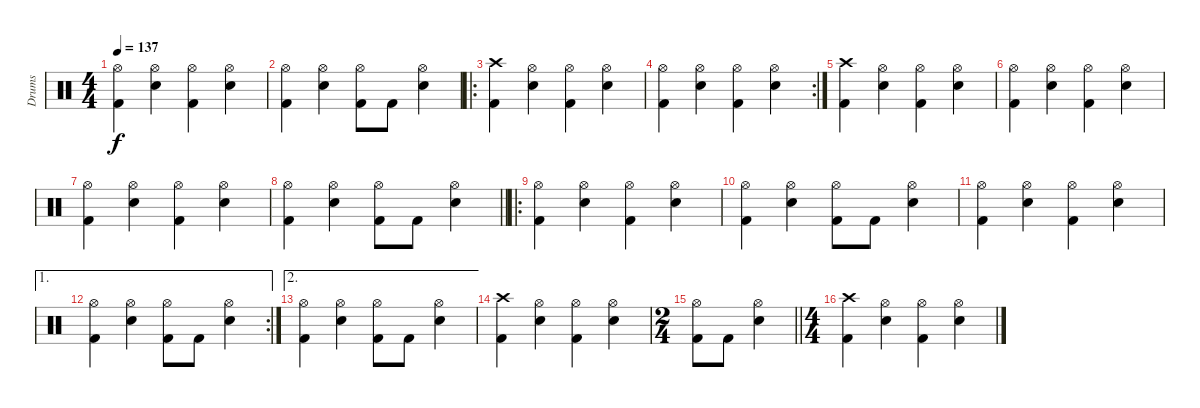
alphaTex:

\track ("Drums" "Drums") {instrument percussion}
\staff {score}
\articulation defaults
\ts (4 4)
\tempo 137
\clef neutral
\ks c
("Hi-Hat (open)" "Kick (hit) 2").4{dy f} ("Hi-Hat (open)" "Snare (hit) 2").4 ("Hi-Hat (open)" "Kick (hit) 2").4 ("Hi-Hat (open)" "Snare (hit) 2").4 |
("Hi-Hat (open)" "Kick (hit) 2").4 ("Hi-Hat (open)" "Snare (hit) 2").4 ("Hi-Hat (open)" "Kick (hit) 2").8 "Kick (hit) 2".8 ("Hi-Hat (open)" "Snare (hit) 2").4 |
\ro
("Crash high (hit)" "Kick (hit) 2").4 ("Hi-Hat (open)" "Snare (hit) 2").4 ("Hi-Hat (open)" "Kick (hit) 2").4 ("Hi-Hat (open)" "Snare (hit) 2").4 |
\rc 2
("Hi-Hat (open)" "Kick (hit) 2").4 ("Hi-Hat (open)" "Snare (hit) 2").4 ("Hi-Hat (open)" "Kick (hit) 2").4 ("Hi-Hat (open)" "Snare (hit) 2").4 |
("Crash high (hit)" "Kick (hit) 2").4 ("Hi-Hat (open)" "Snare (hit) 2").4 ("Hi-Hat (open)" "Kick (hit) 2").4 ("Hi-Hat (open)" "Snare (hit) 2").4 |
("Hi-Hat (open)" "Kick (hit) 2").4 ("Hi-Hat (open)" "Snare (hit) 2").4 ("Hi-Hat (open)" "Kick (hit) 2").4 ("Hi-Hat (open)" "Snare (hit) 2").4 |
("Hi-Hat (open)" "Kick (hit) 2").4 ("Hi-Hat (open)" "Snare (hit) 2").4 ("Hi-Hat (open)" "Kick (hit) 2").4 ("Hi-Hat (open)" "Snare (hit) 2").4 |
\barLineRight lightlight
("Hi-Hat (open)" "Kick (hit) 2").4 ("Hi-Hat (open)" "Snare (hit) 2").4 ("Hi-Hat (open)" "Kick (hit) 2").8 "Kick (hit) 2".8 ("Hi-Hat (open)" "Snare (hit) 2").4 |
\ro
("Hi-Hat (open)" "Kick (hit) 2").4 ("Hi-Hat (open)" "Snare (hit) 2").4 ("Hi-Hat (open)" "Kick (hit) 2").4 ("Hi-Hat (open)" "Snare (hit) 2").4 |
("Hi-Hat (open)" "Kick (hit) 2").4 ("Hi-Hat (open)" "Snare (hit) 2").4 ("Hi-Hat (open)" "Kick (hit) 2").8 "Kick (hit) 2".8 ("Hi-Hat (open)" "Snare (hit) 2").4 |
("Hi-Hat (open)" "Kick (hit) 2").4 ("Hi-Hat (open)" "Snare (hit) 2").4 ("Hi-Hat (open)" "Kick (hit) 2").4 ("Hi-Hat (open)" "Snare (hit) 2").4 |
\ae 1
\rc 2
("Hi-Hat (open)" "Kick (hit) 2").4 ("Hi-Hat (open)" "Snare (hit) 2").4 ("Hi-Hat (open)" "Kick (hit) 2").8 "Kick (hit) 2".8 ("Hi-Hat (open)" "Snare (hit) 2").4 |
\ae 2
("Hi-Hat (open)" "Kick (hit) 2").4 ("Hi-Hat (open)" "Snare (hit) 2").4 ("Hi-Hat (open)" "Kick (hit) 2").8 "Kick (hit) 2".8 ("Hi-Hat (open)" "Snare (hit) 2").4 |
("Crash high (hit)" "Kick (hit) 2").4 ("Hi-Hat (open)" "Snare (hit) 2").4 ("Hi-Hat (open)" "Kick (hit) 2").4 ("Hi-Hat (open)" "Snare (hit) 2").4 |
\ts (2 4)
\barLineRight lightlight
("Hi-Hat (open)" "Kick (hit) 2").8 "Kick (hit) 2".8 ("Hi-Hat (open)" "Snare (hit) 2").4 |
\ts (4 4)
("Crash high (hit)" "Kick (hit) 2").4 ("Hi-Hat (open)" "Snare (hit) 2").4 ("Hi-Hat (open)" "Kick (hit) 2").4 ("Hi-Hat (open)" "Snare (hit) 2").4
